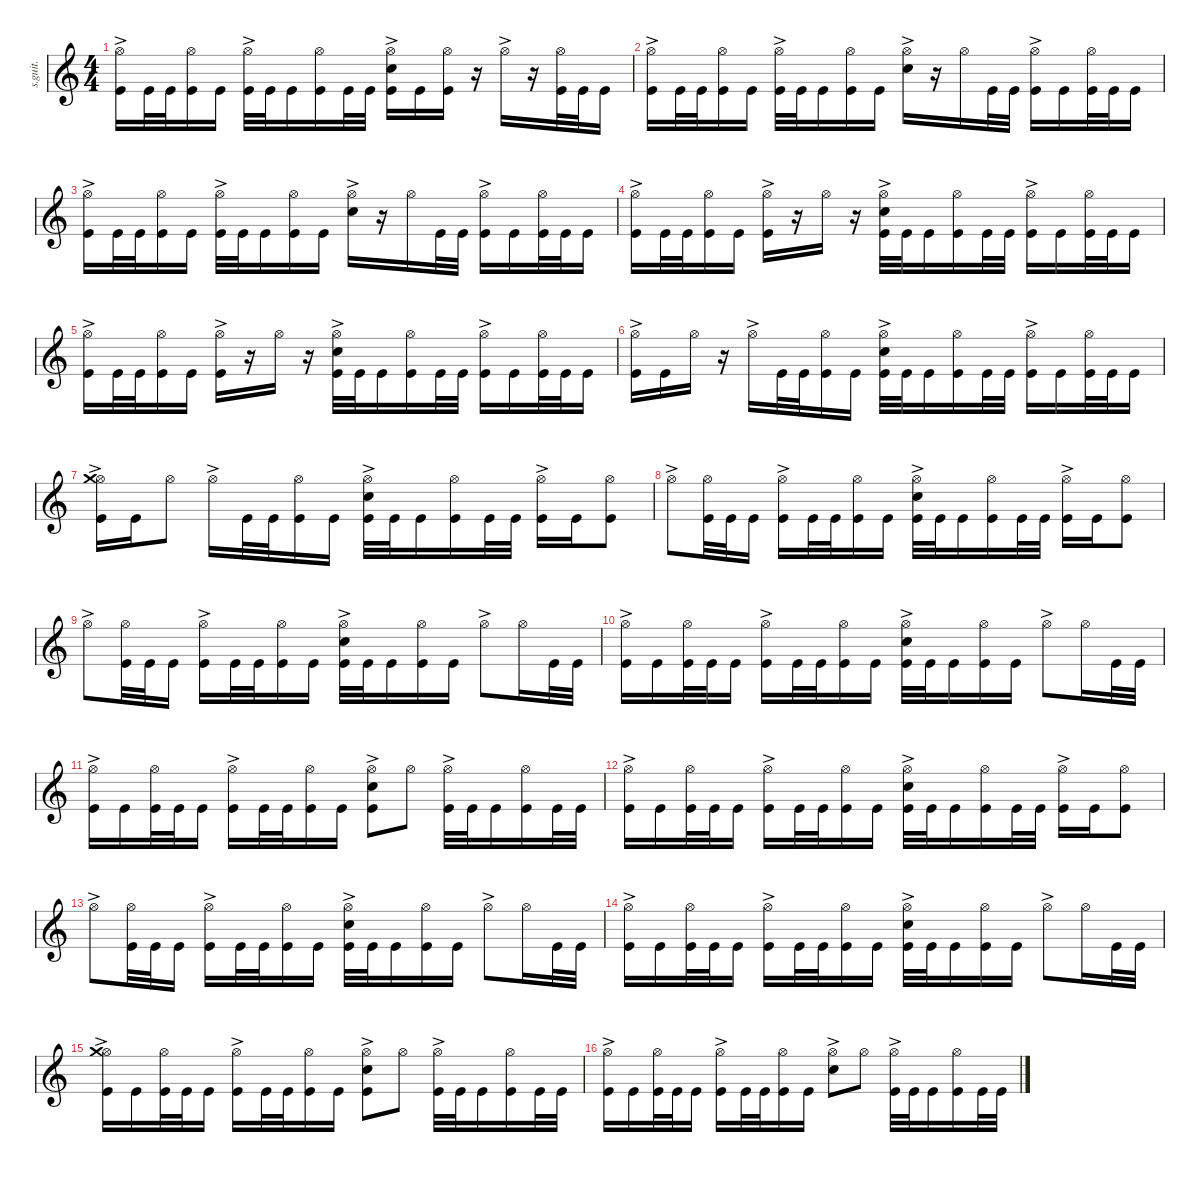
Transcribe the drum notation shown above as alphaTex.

\defaultSystemsLayout 4
\hideDynamics
\bracketExtendMode nobrackets
\track ("Tomas Haake (Drums)" "s.guit.") {instrument percussion}
\staff {score}
\articulation defaults
\ts (4 4)
\tempo (115 hide)
\clef g2
\ks c
("Hi-Hat (open)"{ac} "Kick (hit)").16{lyrics (0 "") lyrics (1 "") lyrics (2 "") lyrics (3 "") lyrics (4 "") dy f} "Kick (hit)".32{lyrics (0 "") lyrics (1 "") lyrics (2 "") lyrics (3 "") lyrics (4 "")} "Kick (hit)".32{lyrics (0 "") lyrics (1 "") lyrics (2 "") lyrics (3 "") lyrics (4 "") dy mf} ("Hi-Hat (open)" "Kick (hit)").16{lyrics (0 "") lyrics (1 "") lyrics (2 "") lyrics (3 "") lyrics (4 "") dy pp} "Kick (hit)".16{lyrics (0 "") lyrics (1 "") lyrics (2 "") lyrics (3 "") lyrics (4 "") dy f} ("Hi-Hat (open)"{ac} "Kick (hit)").32{lyrics (0 "") lyrics (1 "") lyrics (2 "") lyrics (3 "") lyrics (4 "")} "Kick (hit)".32{lyrics (0 "") lyrics (1 "") lyrics (2 "") lyrics (3 "") lyrics (4 "") dy mf} "Kick (hit)".16{lyrics (0 "") lyrics (1 "") lyrics (2 "") lyrics (3 "") lyrics (4 "") dy f} ("Hi-Hat (open)" "Kick (hit)").16{lyrics (0 "") lyrics (1 "") lyrics (2 "") lyrics (3 "") lyrics (4 "") dy pp} "Kick (hit)".32{lyrics (0 "") lyrics (1 "") lyrics (2 "") lyrics (3 "") lyrics (4 "") dy f} "Kick (hit)".32{lyrics (0 "") lyrics (1 "") lyrics (2 "") lyrics (3 "") lyrics (4 "") dy mf} ("Hi-Hat (open)"{ac} "Snare (hit) 2" "Kick (hit)").16{lyrics (0 "") lyrics (1 "") lyrics (2 "") lyrics (3 "") lyrics (4 "") dy f} "Kick (hit)".16{lyrics (0 "") lyrics (1 "") lyrics (2 "") lyrics (3 "") lyrics (4 "")} ("Hi-Hat (open)" "Kick (hit)").16{lyrics (0 "") lyrics (1 "") lyrics (2 "") lyrics (3 "") lyrics (4 "") dy pp} r.16 "Hi-Hat (open)"{ac}.16{lyrics (0 "") lyrics (1 "") lyrics (2 "") lyrics (3 "") lyrics (4 "") dy ppp} r.16 ("Hi-Hat (open)" "Kick (hit)").32{lyrics (0 "") lyrics (1 "") lyrics (2 "") lyrics (3 "") lyrics (4 "") dy pp} "Kick (hit)".32{lyrics (0 "") lyrics (1 "") lyrics (2 "") lyrics (3 "") lyrics (4 "") dy mf} "Kick (hit)".16{lyrics (0 "") lyrics (1 "") lyrics (2 "") lyrics (3 "") lyrics (4 "") dy f} |
("Hi-Hat (open)"{ac} "Kick (hit)").16{lyrics (0 "") lyrics (1 "") lyrics (2 "") lyrics (3 "") lyrics (4 "")} "Kick (hit)".32{lyrics (0 "") lyrics (1 "") lyrics (2 "") lyrics (3 "") lyrics (4 "")} "Kick (hit)".32{lyrics (0 "") lyrics (1 "") lyrics (2 "") lyrics (3 "") lyrics (4 "") dy mf} ("Hi-Hat (open)" "Kick (hit)").16{lyrics (0 "") lyrics (1 "") lyrics (2 "") lyrics (3 "") lyrics (4 "") dy pp} "Kick (hit)".16{lyrics (0 "") lyrics (1 "") lyrics (2 "") lyrics (3 "") lyrics (4 "") dy f} ("Hi-Hat (open)"{ac} "Kick (hit)").32{lyrics (0 "") lyrics (1 "") lyrics (2 "") lyrics (3 "") lyrics (4 "")} "Kick (hit)".32{lyrics (0 "") lyrics (1 "") lyrics (2 "") lyrics (3 "") lyrics (4 "") dy mf} "Kick (hit)".16{lyrics (0 "") lyrics (1 "") lyrics (2 "") lyrics (3 "") lyrics (4 "") dy f} ("Hi-Hat (open)" "Kick (hit)").16{lyrics (0 "") lyrics (1 "") lyrics (2 "") lyrics (3 "") lyrics (4 "") dy pp} "Kick (hit)".16{lyrics (0 "") lyrics (1 "") lyrics (2 "") lyrics (3 "") lyrics (4 "") dy f} ("Hi-Hat (open)"{ac} "Snare (hit) 2").16{lyrics (0 "") lyrics (1 "") lyrics (2 "") lyrics (3 "") lyrics (4 "")} r.16 "Hi-Hat (open)".16{lyrics (0 "") lyrics (1 "") lyrics (2 "") lyrics (3 "") lyrics (4 "") dy pp} "Kick (hit)".32{lyrics (0 "") lyrics (1 "") lyrics (2 "") lyrics (3 "") lyrics (4 "") dy f} "Kick (hit)".32{lyrics (0 "") lyrics (1 "") lyrics (2 "") lyrics (3 "") lyrics (4 "") dy mf} ("Hi-Hat (open)"{ac} "Kick (hit)").16{lyrics (0 "") lyrics (1 "") lyrics (2 "") lyrics (3 "") lyrics (4 "") dy f} "Kick (hit)".16{lyrics (0 "") lyrics (1 "") lyrics (2 "") lyrics (3 "") lyrics (4 "")} ("Hi-Hat (open)" "Kick (hit)").32{lyrics (0 "") lyrics (1 "") lyrics (2 "") lyrics (3 "") lyrics (4 "") dy pp} "Kick (hit)".32{lyrics (0 "") lyrics (1 "") lyrics (2 "") lyrics (3 "") lyrics (4 "") dy mf} "Kick (hit)".16{lyrics (0 "") lyrics (1 "") lyrics (2 "") lyrics (3 "") lyrics (4 "") dy f} |
("Hi-Hat (open)"{ac} "Kick (hit)").16{lyrics (0 "") lyrics (1 "") lyrics (2 "") lyrics (3 "") lyrics (4 "")} "Kick (hit)".32{lyrics (0 "") lyrics (1 "") lyrics (2 "") lyrics (3 "") lyrics (4 "")} "Kick (hit)".32{lyrics (0 "") lyrics (1 "") lyrics (2 "") lyrics (3 "") lyrics (4 "") dy mf} ("Hi-Hat (open)" "Kick (hit)").16{lyrics (0 "") lyrics (1 "") lyrics (2 "") lyrics (3 "") lyrics (4 "") dy pp} "Kick (hit)".16{lyrics (0 "") lyrics (1 "") lyrics (2 "") lyrics (3 "") lyrics (4 "") dy f} ("Hi-Hat (open)"{ac} "Kick (hit)").32{lyrics (0 "") lyrics (1 "") lyrics (2 "") lyrics (3 "") lyrics (4 "")} "Kick (hit)".32{lyrics (0 "") lyrics (1 "") lyrics (2 "") lyrics (3 "") lyrics (4 "") dy mf} "Kick (hit)".16{lyrics (0 "") lyrics (1 "") lyrics (2 "") lyrics (3 "") lyrics (4 "") dy f} ("Hi-Hat (open)" "Kick (hit)").16{lyrics (0 "") lyrics (1 "") lyrics (2 "") lyrics (3 "") lyrics (4 "") dy pp} "Kick (hit)".16{lyrics (0 "") lyrics (1 "") lyrics (2 "") lyrics (3 "") lyrics (4 "") dy f} ("Hi-Hat (open)"{ac} "Snare (hit) 2").16{lyrics (0 "") lyrics (1 "") lyrics (2 "") lyrics (3 "") lyrics (4 "")} r.16 "Hi-Hat (open)".16{lyrics (0 "") lyrics (1 "") lyrics (2 "") lyrics (3 "") lyrics (4 "") dy pp} "Kick (hit)".32{lyrics (0 "") lyrics (1 "") lyrics (2 "") lyrics (3 "") lyrics (4 "") dy f} "Kick (hit)".32{lyrics (0 "") lyrics (1 "") lyrics (2 "") lyrics (3 "") lyrics (4 "") dy mf} ("Hi-Hat (open)"{ac} "Kick (hit)").16{lyrics (0 "") lyrics (1 "") lyrics (2 "") lyrics (3 "") lyrics (4 "") dy f} "Kick (hit)".16{lyrics (0 "") lyrics (1 "") lyrics (2 "") lyrics (3 "") lyrics (4 "")} ("Hi-Hat (open)" "Kick (hit)").32{lyrics (0 "") lyrics (1 "") lyrics (2 "") lyrics (3 "") lyrics (4 "") dy pp} "Kick (hit)".32{lyrics (0 "") lyrics (1 "") lyrics (2 "") lyrics (3 "") lyrics (4 "") dy mf} "Kick (hit)".16{lyrics (0 "") lyrics (1 "") lyrics (2 "") lyrics (3 "") lyrics (4 "") dy f} |
("Hi-Hat (open)"{ac} "Kick (hit)").16{lyrics (0 "") lyrics (1 "") lyrics (2 "") lyrics (3 "") lyrics (4 "")} "Kick (hit)".32{lyrics (0 "") lyrics (1 "") lyrics (2 "") lyrics (3 "") lyrics (4 "")} "Kick (hit)".32{lyrics (0 "") lyrics (1 "") lyrics (2 "") lyrics (3 "") lyrics (4 "") dy mf} ("Hi-Hat (open)" "Kick (hit)").16{lyrics (0 "") lyrics (1 "") lyrics (2 "") lyrics (3 "") lyrics (4 "") dy pp} "Kick (hit)".16{lyrics (0 "") lyrics (1 "") lyrics (2 "") lyrics (3 "") lyrics (4 "") dy f} ("Hi-Hat (open)"{ac} "Kick (hit)").16{lyrics (0 "") lyrics (1 "") lyrics (2 "") lyrics (3 "") lyrics (4 "")} r.16 "Hi-Hat (open)".16{lyrics (0 "") lyrics (1 "") lyrics (2 "") lyrics (3 "") lyrics (4 "") dy pp} r.16 ("Hi-Hat (open)"{ac} "Snare (hit) 2" "Kick (hit)").32{lyrics (0 "") lyrics (1 "") lyrics (2 "") lyrics (3 "") lyrics (4 "") dy f} "Kick (hit)".32{lyrics (0 "") lyrics (1 "") lyrics (2 "") lyrics (3 "") lyrics (4 "") dy mf} "Kick (hit)".16{lyrics (0 "") lyrics (1 "") lyrics (2 "") lyrics (3 "") lyrics (4 "") dy f} ("Hi-Hat (open)" "Kick (hit)").16{lyrics (0 "") lyrics (1 "") lyrics (2 "") lyrics (3 "") lyrics (4 "") dy pp} "Kick (hit)".32{lyrics (0 "") lyrics (1 "") lyrics (2 "") lyrics (3 "") lyrics (4 "") dy f} "Kick (hit)".32{lyrics (0 "") lyrics (1 "") lyrics (2 "") lyrics (3 "") lyrics (4 "") dy mf} ("Hi-Hat (open)"{ac} "Kick (hit)").16{lyrics (0 "") lyrics (1 "") lyrics (2 "") lyrics (3 "") lyrics (4 "") dy f} "Kick (hit)".16{lyrics (0 "") lyrics (1 "") lyrics (2 "") lyrics (3 "") lyrics (4 "")} ("Hi-Hat (open)" "Kick (hit)").32{lyrics (0 "") lyrics (1 "") lyrics (2 "") lyrics (3 "") lyrics (4 "") dy pp} "Kick (hit)".32{lyrics (0 "") lyrics (1 "") lyrics (2 "") lyrics (3 "") lyrics (4 "") dy mf} "Kick (hit)".16{lyrics (0 "") lyrics (1 "") lyrics (2 "") lyrics (3 "") lyrics (4 "") dy f} |
("Hi-Hat (open)"{ac} "Kick (hit)").16{lyrics (0 "") lyrics (1 "") lyrics (2 "") lyrics (3 "") lyrics (4 "")} "Kick (hit)".32{lyrics (0 "") lyrics (1 "") lyrics (2 "") lyrics (3 "") lyrics (4 "")} "Kick (hit)".32{lyrics (0 "") lyrics (1 "") lyrics (2 "") lyrics (3 "") lyrics (4 "") dy mf} ("Hi-Hat (open)" "Kick (hit)").16{lyrics (0 "") lyrics (1 "") lyrics (2 "") lyrics (3 "") lyrics (4 "") dy pp} "Kick (hit)".16{lyrics (0 "") lyrics (1 "") lyrics (2 "") lyrics (3 "") lyrics (4 "") dy f} ("Hi-Hat (open)"{ac} "Kick (hit)").16{lyrics (0 "") lyrics (1 "") lyrics (2 "") lyrics (3 "") lyrics (4 "")} r.16 "Hi-Hat (open)".16{lyrics (0 "") lyrics (1 "") lyrics (2 "") lyrics (3 "") lyrics (4 "") dy pp} r.16 ("Hi-Hat (open)"{ac} "Snare (hit) 2" "Kick (hit)").32{lyrics (0 "") lyrics (1 "") lyrics (2 "") lyrics (3 "") lyrics (4 "") dy f} "Kick (hit)".32{lyrics (0 "") lyrics (1 "") lyrics (2 "") lyrics (3 "") lyrics (4 "") dy mf} "Kick (hit)".16{lyrics (0 "") lyrics (1 "") lyrics (2 "") lyrics (3 "") lyrics (4 "") dy f} ("Hi-Hat (open)" "Kick (hit)").16{lyrics (0 "") lyrics (1 "") lyrics (2 "") lyrics (3 "") lyrics (4 "") dy pp} "Kick (hit)".32{lyrics (0 "") lyrics (1 "") lyrics (2 "") lyrics (3 "") lyrics (4 "") dy f} "Kick (hit)".32{lyrics (0 "") lyrics (1 "") lyrics (2 "") lyrics (3 "") lyrics (4 "") dy mf} ("Hi-Hat (open)"{ac} "Kick (hit)").16{lyrics (0 "") lyrics (1 "") lyrics (2 "") lyrics (3 "") lyrics (4 "") dy f} "Kick (hit)".16{lyrics (0 "") lyrics (1 "") lyrics (2 "") lyrics (3 "") lyrics (4 "")} ("Hi-Hat (open)" "Kick (hit)").32{lyrics (0 "") lyrics (1 "") lyrics (2 "") lyrics (3 "") lyrics (4 "") dy pp} "Kick (hit)".32{lyrics (0 "") lyrics (1 "") lyrics (2 "") lyrics (3 "") lyrics (4 "") dy mf} "Kick (hit)".16{lyrics (0 "") lyrics (1 "") lyrics (2 "") lyrics (3 "") lyrics (4 "") dy f} |
("Hi-Hat (open)"{ac} "Kick (hit)").16{lyrics (0 "") lyrics (1 "") lyrics (2 "") lyrics (3 "") lyrics (4 "")} "Kick (hit)".16{lyrics (0 "") lyrics (1 "") lyrics (2 "") lyrics (3 "") lyrics (4 "")} "Hi-Hat (open)".16{lyrics (0 "") lyrics (1 "") lyrics (2 "") lyrics (3 "") lyrics (4 "") dy pp} r.16 "Hi-Hat (open)"{ac}.16{lyrics (0 "") lyrics (1 "") lyrics (2 "") lyrics (3 "") lyrics (4 "") dy ppp} "Kick (hit)".32{lyrics (0 "") lyrics (1 "") lyrics (2 "") lyrics (3 "") lyrics (4 "") dy f} "Kick (hit)".32{lyrics (0 "") lyrics (1 "") lyrics (2 "") lyrics (3 "") lyrics (4 "") dy mf} ("Hi-Hat (open)" "Kick (hit)").16{lyrics (0 "") lyrics (1 "") lyrics (2 "") lyrics (3 "") lyrics (4 "") dy pp} "Kick (hit)".16{lyrics (0 "") lyrics (1 "") lyrics (2 "") lyrics (3 "") lyrics (4 "") dy f} ("Hi-Hat (open)"{ac} "Snare (hit) 2" "Kick (hit)").32{lyrics (0 "") lyrics (1 "") lyrics (2 "") lyrics (3 "") lyrics (4 "")} "Kick (hit)".32{lyrics (0 "") lyrics (1 "") lyrics (2 "") lyrics (3 "") lyrics (4 "")} "Kick (hit)".16{lyrics (0 "") lyrics (1 "") lyrics (2 "") lyrics (3 "") lyrics (4 "")} ("Hi-Hat (open)" "Kick (hit)").16{lyrics (0 "") lyrics (1 "") lyrics (2 "") lyrics (3 "") lyrics (4 "") dy pp} "Kick (hit)".32{lyrics (0 "") lyrics (1 "") lyrics (2 "") lyrics (3 "") lyrics (4 "") dy f} "Kick (hit)".32{lyrics (0 "") lyrics (1 "") lyrics (2 "") lyrics (3 "") lyrics (4 "") dy mf} ("Hi-Hat (open)"{ac} "Kick (hit)").16{lyrics (0 "") lyrics (1 "") lyrics (2 "") lyrics (3 "") lyrics (4 "") dy f} "Kick (hit)".16{lyrics (0 "") lyrics (1 "") lyrics (2 "") lyrics (3 "") lyrics (4 "")} ("Hi-Hat (open)" "Kick (hit)").32{lyrics (0 "") lyrics (1 "") lyrics (2 "") lyrics (3 "") lyrics (4 "") dy pp} "Kick (hit)".32{lyrics (0 "") lyrics (1 "") lyrics (2 "") lyrics (3 "") lyrics (4 "") dy mf} "Kick (hit)".16{lyrics (0 "") lyrics (1 "") lyrics (2 "") lyrics (3 "") lyrics (4 "") dy f} |
("Hi-Hat (open)"{ac} "Crash medium (hit)" "Kick (hit)").16{lyrics (0 "") lyrics (1 "") lyrics (2 "") lyrics (3 "") lyrics (4 "") dy mf} "Kick (hit)".16{lyrics (0 "") lyrics (1 "") lyrics (2 "") lyrics (3 "") lyrics (4 "") dy f} "Hi-Hat (open)".8{lyrics (0 "") lyrics (1 "") lyrics (2 "") lyrics (3 "") lyrics (4 "") dy p} "Hi-Hat (open)"{ac}.16{lyrics (0 "") lyrics (1 "") lyrics (2 "") lyrics (3 "") lyrics (4 "") dy ppp} "Kick (hit)".32{lyrics (0 "") lyrics (1 "") lyrics (2 "") lyrics (3 "") lyrics (4 "") dy f} "Kick (hit)".32{lyrics (0 "") lyrics (1 "") lyrics (2 "") lyrics (3 "") lyrics (4 "") dy mf} ("Hi-Hat (open)" "Kick (hit)").16{lyrics (0 "") lyrics (1 "") lyrics (2 "") lyrics (3 "") lyrics (4 "") dy p} "Kick (hit)".16{lyrics (0 "") lyrics (1 "") lyrics (2 "") lyrics (3 "") lyrics (4 "") dy f} ("Hi-Hat (open)"{ac} "Snare (hit) 2" "Kick (hit)").32{lyrics (0 "") lyrics (1 "") lyrics (2 "") lyrics (3 "") lyrics (4 "")} "Kick (hit)".32{lyrics (0 "") lyrics (1 "") lyrics (2 "") lyrics (3 "") lyrics (4 "")} "Kick (hit)".16{lyrics (0 "") lyrics (1 "") lyrics (2 "") lyrics (3 "") lyrics (4 "")} ("Hi-Hat (open)" "Kick (hit)").16{lyrics (0 "") lyrics (1 "") lyrics (2 "") lyrics (3 "") lyrics (4 "") dy p} "Kick (hit)".32{lyrics (0 "") lyrics (1 "") lyrics (2 "") lyrics (3 "") lyrics (4 "") dy f} "Kick (hit)".32{lyrics (0 "") lyrics (1 "") lyrics (2 "") lyrics (3 "") lyrics (4 "") dy mf} ("Hi-Hat (open)"{ac} "Kick (hit)").16{lyrics (0 "") lyrics (1 "") lyrics (2 "") lyrics (3 "") lyrics (4 "") dy f} "Kick (hit)".16{lyrics (0 "") lyrics (1 "") lyrics (2 "") lyrics (3 "") lyrics (4 "")} ("Hi-Hat (open)" "Kick (hit)").8{lyrics (0 "") lyrics (1 "") lyrics (2 "") lyrics (3 "") lyrics (4 "") dy p} |
"Hi-Hat (open)"{ac}.8{lyrics (0 "") lyrics (1 "") lyrics (2 "") lyrics (3 "") lyrics (4 "") dy ppp} ("Hi-Hat (open)" "Kick (hit)").32{lyrics (0 "") lyrics (1 "") lyrics (2 "") lyrics (3 "") lyrics (4 "") dy p} "Kick (hit)".32{lyrics (0 "") lyrics (1 "") lyrics (2 "") lyrics (3 "") lyrics (4 "") dy mf} "Kick (hit)".16{lyrics (0 "") lyrics (1 "") lyrics (2 "") lyrics (3 "") lyrics (4 "") dy f} ("Hi-Hat (open)"{ac} "Kick (hit)").16{lyrics (0 "") lyrics (1 "") lyrics (2 "") lyrics (3 "") lyrics (4 "")} "Kick (hit)".32{lyrics (0 "") lyrics (1 "") lyrics (2 "") lyrics (3 "") lyrics (4 "")} "Kick (hit)".32{lyrics (0 "") lyrics (1 "") lyrics (2 "") lyrics (3 "") lyrics (4 "") dy mf} ("Hi-Hat (open)" "Kick (hit)").16{lyrics (0 "") lyrics (1 "") lyrics (2 "") lyrics (3 "") lyrics (4 "") dy p} "Kick (hit)".16{lyrics (0 "") lyrics (1 "") lyrics (2 "") lyrics (3 "") lyrics (4 "") dy f} ("Hi-Hat (open)"{ac} "Snare (hit) 2" "Kick (hit)").32{lyrics (0 "") lyrics (1 "") lyrics (2 "") lyrics (3 "") lyrics (4 "")} "Kick (hit)".32{lyrics (0 "") lyrics (1 "") lyrics (2 "") lyrics (3 "") lyrics (4 "")} "Kick (hit)".16{lyrics (0 "") lyrics (1 "") lyrics (2 "") lyrics (3 "") lyrics (4 "")} ("Hi-Hat (open)" "Kick (hit)").16{lyrics (0 "") lyrics (1 "") lyrics (2 "") lyrics (3 "") lyrics (4 "") dy p} "Kick (hit)".32{lyrics (0 "") lyrics (1 "") lyrics (2 "") lyrics (3 "") lyrics (4 "") dy f} "Kick (hit)".32{lyrics (0 "") lyrics (1 "") lyrics (2 "") lyrics (3 "") lyrics (4 "") dy mf} ("Hi-Hat (open)"{ac} "Kick (hit)").16{lyrics (0 "") lyrics (1 "") lyrics (2 "") lyrics (3 "") lyrics (4 "") dy f} "Kick (hit)".16{lyrics (0 "") lyrics (1 "") lyrics (2 "") lyrics (3 "") lyrics (4 "")} ("Hi-Hat (open)" "Kick (hit)").8{lyrics (0 "") lyrics (1 "") lyrics (2 "") lyrics (3 "") lyrics (4 "") dy p} |
"Hi-Hat (open)"{ac}.8{lyrics (0 "") lyrics (1 "") lyrics (2 "") lyrics (3 "") lyrics (4 "") dy ppp} ("Hi-Hat (open)" "Kick (hit)").32{lyrics (0 "") lyrics (1 "") lyrics (2 "") lyrics (3 "") lyrics (4 "") dy p} "Kick (hit)".32{lyrics (0 "") lyrics (1 "") lyrics (2 "") lyrics (3 "") lyrics (4 "") dy mf} "Kick (hit)".16{lyrics (0 "") lyrics (1 "") lyrics (2 "") lyrics (3 "") lyrics (4 "") dy f} ("Hi-Hat (open)"{ac} "Kick (hit)").16{lyrics (0 "") lyrics (1 "") lyrics (2 "") lyrics (3 "") lyrics (4 "")} "Kick (hit)".32{lyrics (0 "") lyrics (1 "") lyrics (2 "") lyrics (3 "") lyrics (4 "")} "Kick (hit)".32{lyrics (0 "") lyrics (1 "") lyrics (2 "") lyrics (3 "") lyrics (4 "") dy mf} ("Hi-Hat (open)" "Kick (hit)").16{lyrics (0 "") lyrics (1 "") lyrics (2 "") lyrics (3 "") lyrics (4 "") dy p} "Kick (hit)".16{lyrics (0 "") lyrics (1 "") lyrics (2 "") lyrics (3 "") lyrics (4 "") dy f} ("Hi-Hat (open)"{ac} "Snare (hit) 2" "Kick (hit)").32{lyrics (0 "") lyrics (1 "") lyrics (2 "") lyrics (3 "") lyrics (4 "")} "Kick (hit)".32{lyrics (0 "") lyrics (1 "") lyrics (2 "") lyrics (3 "") lyrics (4 "")} "Kick (hit)".16{lyrics (0 "") lyrics (1 "") lyrics (2 "") lyrics (3 "") lyrics (4 "")} ("Hi-Hat (open)" "Kick (hit)").16{lyrics (0 "") lyrics (1 "") lyrics (2 "") lyrics (3 "") lyrics (4 "") dy p} "Kick (hit)".16{lyrics (0 "") lyrics (1 "") lyrics (2 "") lyrics (3 "") lyrics (4 "") dy f} "Hi-Hat (open)"{ac}.8{lyrics (0 "") lyrics (1 "") lyrics (2 "") lyrics (3 "") lyrics (4 "") dy ppp} "Hi-Hat (open)".16{lyrics (0 "") lyrics (1 "") lyrics (2 "") lyrics (3 "") lyrics (4 "") dy p} "Kick (hit)".32{lyrics (0 "") lyrics (1 "") lyrics (2 "") lyrics (3 "") lyrics (4 "") dy f} "Kick (hit)".32{lyrics (0 "") lyrics (1 "") lyrics (2 "") lyrics (3 "") lyrics (4 "") dy mf} |
("Hi-Hat (open)"{ac} "Kick (hit)").16{lyrics (0 "") lyrics (1 "") lyrics (2 "") lyrics (3 "") lyrics (4 "") dy f} "Kick (hit)".16{lyrics (0 "") lyrics (1 "") lyrics (2 "") lyrics (3 "") lyrics (4 "")} ("Hi-Hat (open)" "Kick (hit)").32{lyrics (0 "") lyrics (1 "") lyrics (2 "") lyrics (3 "") lyrics (4 "") dy p} "Kick (hit)".32{lyrics (0 "") lyrics (1 "") lyrics (2 "") lyrics (3 "") lyrics (4 "") dy mf} "Kick (hit)".16{lyrics (0 "") lyrics (1 "") lyrics (2 "") lyrics (3 "") lyrics (4 "") dy f} ("Hi-Hat (open)"{ac} "Kick (hit)").16{lyrics (0 "") lyrics (1 "") lyrics (2 "") lyrics (3 "") lyrics (4 "")} "Kick (hit)".32{lyrics (0 "") lyrics (1 "") lyrics (2 "") lyrics (3 "") lyrics (4 "")} "Kick (hit)".32{lyrics (0 "") lyrics (1 "") lyrics (2 "") lyrics (3 "") lyrics (4 "") dy mf} ("Hi-Hat (open)" "Kick (hit)").16{lyrics (0 "") lyrics (1 "") lyrics (2 "") lyrics (3 "") lyrics (4 "") dy p} "Kick (hit)".16{lyrics (0 "") lyrics (1 "") lyrics (2 "") lyrics (3 "") lyrics (4 "") dy f} ("Hi-Hat (open)"{ac} "Snare (hit) 2" "Kick (hit)").32{lyrics (0 "") lyrics (1 "") lyrics (2 "") lyrics (3 "") lyrics (4 "")} "Kick (hit)".32{lyrics (0 "") lyrics (1 "") lyrics (2 "") lyrics (3 "") lyrics (4 "")} "Kick (hit)".16{lyrics (0 "") lyrics (1 "") lyrics (2 "") lyrics (3 "") lyrics (4 "")} ("Hi-Hat (open)" "Kick (hit)").16{lyrics (0 "") lyrics (1 "") lyrics (2 "") lyrics (3 "") lyrics (4 "") dy p} "Kick (hit)".16{lyrics (0 "") lyrics (1 "") lyrics (2 "") lyrics (3 "") lyrics (4 "") dy f} "Hi-Hat (open)"{ac}.8{lyrics (0 "") lyrics (1 "") lyrics (2 "") lyrics (3 "") lyrics (4 "") dy ppp} "Hi-Hat (open)".16{lyrics (0 "") lyrics (1 "") lyrics (2 "") lyrics (3 "") lyrics (4 "") dy p} "Kick (hit)".32{lyrics (0 "") lyrics (1 "") lyrics (2 "") lyrics (3 "") lyrics (4 "") dy f} "Kick (hit)".32{lyrics (0 "") lyrics (1 "") lyrics (2 "") lyrics (3 "") lyrics (4 "") dy mf} |
("Hi-Hat (open)"{ac} "Kick (hit)").16{lyrics (0 "") lyrics (1 "") lyrics (2 "") lyrics (3 "") lyrics (4 "") dy f} "Kick (hit)".16{lyrics (0 "") lyrics (1 "") lyrics (2 "") lyrics (3 "") lyrics (4 "")} ("Hi-Hat (open)" "Kick (hit)").32{lyrics (0 "") lyrics (1 "") lyrics (2 "") lyrics (3 "") lyrics (4 "") dy p} "Kick (hit)".32{lyrics (0 "") lyrics (1 "") lyrics (2 "") lyrics (3 "") lyrics (4 "") dy mf} "Kick (hit)".16{lyrics (0 "") lyrics (1 "") lyrics (2 "") lyrics (3 "") lyrics (4 "") dy f} ("Hi-Hat (open)"{ac} "Kick (hit)").16{lyrics (0 "") lyrics (1 "") lyrics (2 "") lyrics (3 "") lyrics (4 "")} "Kick (hit)".32{lyrics (0 "") lyrics (1 "") lyrics (2 "") lyrics (3 "") lyrics (4 "")} "Kick (hit)".32{lyrics (0 "") lyrics (1 "") lyrics (2 "") lyrics (3 "") lyrics (4 "") dy mf} ("Hi-Hat (open)" "Kick (hit)").16{lyrics (0 "") lyrics (1 "") lyrics (2 "") lyrics (3 "") lyrics (4 "") dy p} "Kick (hit)".16{lyrics (0 "") lyrics (1 "") lyrics (2 "") lyrics (3 "") lyrics (4 "") dy f} ("Hi-Hat (open)"{ac} "Snare (hit) 2" "Kick (hit)").8{lyrics (0 "") lyrics (1 "") lyrics (2 "") lyrics (3 "") lyrics (4 "")} "Hi-Hat (open)".8{lyrics (0 "") lyrics (1 "") lyrics (2 "") lyrics (3 "") lyrics (4 "") dy p} ("Hi-Hat (open)"{ac} "Kick (hit)").32{lyrics (0 "") lyrics (1 "") lyrics (2 "") lyrics (3 "") lyrics (4 "") dy f} "Kick (hit)".32{lyrics (0 "") lyrics (1 "") lyrics (2 "") lyrics (3 "") lyrics (4 "")} "Kick (hit)".16{lyrics (0 "") lyrics (1 "") lyrics (2 "") lyrics (3 "") lyrics (4 "")} ("Hi-Hat (open)" "Kick (hit)").16{lyrics (0 "") lyrics (1 "") lyrics (2 "") lyrics (3 "") lyrics (4 "") dy p} "Kick (hit)".32{lyrics (0 "") lyrics (1 "") lyrics (2 "") lyrics (3 "") lyrics (4 "") dy f} "Kick (hit)".32{lyrics (0 "") lyrics (1 "") lyrics (2 "") lyrics (3 "") lyrics (4 "") dy mf} |
("Hi-Hat (open)"{ac} "Kick (hit)").16{lyrics (0 "") lyrics (1 "") lyrics (2 "") lyrics (3 "") lyrics (4 "") dy f} "Kick (hit)".16{lyrics (0 "") lyrics (1 "") lyrics (2 "") lyrics (3 "") lyrics (4 "")} ("Hi-Hat (open)" "Kick (hit)").32{lyrics (0 "") lyrics (1 "") lyrics (2 "") lyrics (3 "") lyrics (4 "") dy p} "Kick (hit)".32{lyrics (0 "") lyrics (1 "") lyrics (2 "") lyrics (3 "") lyrics (4 "") dy mf} "Kick (hit)".16{lyrics (0 "") lyrics (1 "") lyrics (2 "") lyrics (3 "") lyrics (4 "") dy f} ("Hi-Hat (open)"{ac} "Kick (hit)").16{lyrics (0 "") lyrics (1 "") lyrics (2 "") lyrics (3 "") lyrics (4 "")} "Kick (hit)".32{lyrics (0 "") lyrics (1 "") lyrics (2 "") lyrics (3 "") lyrics (4 "")} "Kick (hit)".32{lyrics (0 "") lyrics (1 "") lyrics (2 "") lyrics (3 "") lyrics (4 "") dy mf} ("Hi-Hat (open)" "Kick (hit)").16{lyrics (0 "") lyrics (1 "") lyrics (2 "") lyrics (3 "") lyrics (4 "") dy p} "Kick (hit)".16{lyrics (0 "") lyrics (1 "") lyrics (2 "") lyrics (3 "") lyrics (4 "") dy f} ("Hi-Hat (open)"{ac} "Snare (hit) 2" "Kick (hit)").32{lyrics (0 "") lyrics (1 "") lyrics (2 "") lyrics (3 "") lyrics (4 "")} "Kick (hit)".32{lyrics (0 "") lyrics (1 "") lyrics (2 "") lyrics (3 "") lyrics (4 "") dy mf} "Kick (hit)".16{lyrics (0 "") lyrics (1 "") lyrics (2 "") lyrics (3 "") lyrics (4 "") dy f} ("Hi-Hat (open)" "Kick (hit)").16{lyrics (0 "") lyrics (1 "") lyrics (2 "") lyrics (3 "") lyrics (4 "") dy p} "Kick (hit)".32{lyrics (0 "") lyrics (1 "") lyrics (2 "") lyrics (3 "") lyrics (4 "") dy f} "Kick (hit)".32{lyrics (0 "") lyrics (1 "") lyrics (2 "") lyrics (3 "") lyrics (4 "") dy mf} ("Hi-Hat (open)"{ac} "Kick (hit)").16{lyrics (0 "") lyrics (1 "") lyrics (2 "") lyrics (3 "") lyrics (4 "") dy f} "Kick (hit)".16{lyrics (0 "") lyrics (1 "") lyrics (2 "") lyrics (3 "") lyrics (4 "")} ("Hi-Hat (open)" "Kick (hit)").8{lyrics (0 "") lyrics (1 "") lyrics (2 "") lyrics (3 "") lyrics (4 "") dy p} |
"Hi-Hat (open)"{ac}.8{lyrics (0 "") lyrics (1 "") lyrics (2 "") lyrics (3 "") lyrics (4 "") dy ppp} ("Hi-Hat (open)" "Kick (hit)").32{lyrics (0 "") lyrics (1 "") lyrics (2 "") lyrics (3 "") lyrics (4 "") dy p} "Kick (hit)".32{lyrics (0 "") lyrics (1 "") lyrics (2 "") lyrics (3 "") lyrics (4 "") dy mf} "Kick (hit)".16{lyrics (0 "") lyrics (1 "") lyrics (2 "") lyrics (3 "") lyrics (4 "") dy f} ("Hi-Hat (open)"{ac} "Kick (hit)").16{lyrics (0 "") lyrics (1 "") lyrics (2 "") lyrics (3 "") lyrics (4 "")} "Kick (hit)".32{lyrics (0 "") lyrics (1 "") lyrics (2 "") lyrics (3 "") lyrics (4 "")} "Kick (hit)".32{lyrics (0 "") lyrics (1 "") lyrics (2 "") lyrics (3 "") lyrics (4 "") dy mf} ("Hi-Hat (open)" "Kick (hit)").16{lyrics (0 "") lyrics (1 "") lyrics (2 "") lyrics (3 "") lyrics (4 "") dy p} "Kick (hit)".16{lyrics (0 "") lyrics (1 "") lyrics (2 "") lyrics (3 "") lyrics (4 "") dy f} ("Hi-Hat (open)"{ac} "Snare (hit) 2" "Kick (hit)").32{lyrics (0 "") lyrics (1 "") lyrics (2 "") lyrics (3 "") lyrics (4 "")} "Kick (hit)".32{lyrics (0 "") lyrics (1 "") lyrics (2 "") lyrics (3 "") lyrics (4 "")} "Kick (hit)".16{lyrics (0 "") lyrics (1 "") lyrics (2 "") lyrics (3 "") lyrics (4 "")} ("Hi-Hat (open)" "Kick (hit)").16{lyrics (0 "") lyrics (1 "") lyrics (2 "") lyrics (3 "") lyrics (4 "") dy p} "Kick (hit)".16{lyrics (0 "") lyrics (1 "") lyrics (2 "") lyrics (3 "") lyrics (4 "") dy f} "Hi-Hat (open)"{ac}.8{lyrics (0 "") lyrics (1 "") lyrics (2 "") lyrics (3 "") lyrics (4 "") dy ppp} "Hi-Hat (open)".16{lyrics (0 "") lyrics (1 "") lyrics (2 "") lyrics (3 "") lyrics (4 "") dy p} "Kick (hit)".32{lyrics (0 "") lyrics (1 "") lyrics (2 "") lyrics (3 "") lyrics (4 "") dy f} "Kick (hit)".32{lyrics (0 "") lyrics (1 "") lyrics (2 "") lyrics (3 "") lyrics (4 "") dy mf} |
("Hi-Hat (open)"{ac} "Kick (hit)").16{lyrics (0 "") lyrics (1 "") lyrics (2 "") lyrics (3 "") lyrics (4 "") dy f} "Kick (hit)".16{lyrics (0 "") lyrics (1 "") lyrics (2 "") lyrics (3 "") lyrics (4 "")} ("Hi-Hat (open)" "Kick (hit)").32{lyrics (0 "") lyrics (1 "") lyrics (2 "") lyrics (3 "") lyrics (4 "") dy p} "Kick (hit)".32{lyrics (0 "") lyrics (1 "") lyrics (2 "") lyrics (3 "") lyrics (4 "") dy mf} "Kick (hit)".16{lyrics (0 "") lyrics (1 "") lyrics (2 "") lyrics (3 "") lyrics (4 "") dy f} ("Hi-Hat (open)"{ac} "Kick (hit)").16{lyrics (0 "") lyrics (1 "") lyrics (2 "") lyrics (3 "") lyrics (4 "")} "Kick (hit)".32{lyrics (0 "") lyrics (1 "") lyrics (2 "") lyrics (3 "") lyrics (4 "")} "Kick (hit)".32{lyrics (0 "") lyrics (1 "") lyrics (2 "") lyrics (3 "") lyrics (4 "") dy mf} ("Hi-Hat (open)" "Kick (hit)").16{lyrics (0 "") lyrics (1 "") lyrics (2 "") lyrics (3 "") lyrics (4 "") dy p} "Kick (hit)".16{lyrics (0 "") lyrics (1 "") lyrics (2 "") lyrics (3 "") lyrics (4 "") dy f} ("Hi-Hat (open)"{ac} "Snare (hit) 2" "Kick (hit)").32{lyrics (0 "") lyrics (1 "") lyrics (2 "") lyrics (3 "") lyrics (4 "")} "Kick (hit)".32{lyrics (0 "") lyrics (1 "") lyrics (2 "") lyrics (3 "") lyrics (4 "")} "Kick (hit)".16{lyrics (0 "") lyrics (1 "") lyrics (2 "") lyrics (3 "") lyrics (4 "")} ("Hi-Hat (open)" "Kick (hit)").16{lyrics (0 "") lyrics (1 "") lyrics (2 "") lyrics (3 "") lyrics (4 "") dy p} "Kick (hit)".16{lyrics (0 "") lyrics (1 "") lyrics (2 "") lyrics (3 "") lyrics (4 "") dy f} "Hi-Hat (open)"{ac}.8{lyrics (0 "") lyrics (1 "") lyrics (2 "") lyrics (3 "") lyrics (4 "") dy ppp} "Hi-Hat (open)".16{lyrics (0 "") lyrics (1 "") lyrics (2 "") lyrics (3 "") lyrics (4 "") dy p} "Kick (hit)".32{lyrics (0 "") lyrics (1 "") lyrics (2 "") lyrics (3 "") lyrics (4 "") dy f} "Kick (hit)".32{lyrics (0 "") lyrics (1 "") lyrics (2 "") lyrics (3 "") lyrics (4 "") dy mf} |
("Hi-Hat (open)"{ac} "Crash medium (hit)" "Kick (hit)").16{lyrics (0 "") lyrics (1 "") lyrics (2 "") lyrics (3 "") lyrics (4 "")} "Kick (hit)".16{lyrics (0 "") lyrics (1 "") lyrics (2 "") lyrics (3 "") lyrics (4 "") dy f} ("Hi-Hat (open)" "Kick (hit)").32{lyrics (0 "") lyrics (1 "") lyrics (2 "") lyrics (3 "") lyrics (4 "") dy p} "Kick (hit)".32{lyrics (0 "") lyrics (1 "") lyrics (2 "") lyrics (3 "") lyrics (4 "") dy mf} "Kick (hit)".16{lyrics (0 "") lyrics (1 "") lyrics (2 "") lyrics (3 "") lyrics (4 "") dy f} ("Hi-Hat (open)"{ac} "Kick (hit)").16{lyrics (0 "") lyrics (1 "") lyrics (2 "") lyrics (3 "") lyrics (4 "")} "Kick (hit)".32{lyrics (0 "") lyrics (1 "") lyrics (2 "") lyrics (3 "") lyrics (4 "")} "Kick (hit)".32{lyrics (0 "") lyrics (1 "") lyrics (2 "") lyrics (3 "") lyrics (4 "") dy mf} ("Hi-Hat (open)" "Kick (hit)").16{lyrics (0 "") lyrics (1 "") lyrics (2 "") lyrics (3 "") lyrics (4 "") dy p} "Kick (hit)".16{lyrics (0 "") lyrics (1 "") lyrics (2 "") lyrics (3 "") lyrics (4 "") dy f} ("Hi-Hat (open)"{ac} "Snare (hit) 2" "Kick (hit)").8{lyrics (0 "") lyrics (1 "") lyrics (2 "") lyrics (3 "") lyrics (4 "")} "Hi-Hat (open)".8{lyrics (0 "") lyrics (1 "") lyrics (2 "") lyrics (3 "") lyrics (4 "") dy p} ("Hi-Hat (open)"{ac} "Kick (hit)").32{lyrics (0 "") lyrics (1 "") lyrics (2 "") lyrics (3 "") lyrics (4 "") dy f} "Kick (hit)".32{lyrics (0 "") lyrics (1 "") lyrics (2 "") lyrics (3 "") lyrics (4 "")} "Kick (hit)".16{lyrics (0 "") lyrics (1 "") lyrics (2 "") lyrics (3 "") lyrics (4 "")} ("Hi-Hat (open)" "Kick (hit)").16{lyrics (0 "") lyrics (1 "") lyrics (2 "") lyrics (3 "") lyrics (4 "") dy p} "Kick (hit)".32{lyrics (0 "") lyrics (1 "") lyrics (2 "") lyrics (3 "") lyrics (4 "") dy f} "Kick (hit)".32{lyrics (0 "") lyrics (1 "") lyrics (2 "") lyrics (3 "") lyrics (4 "") dy mf} |
("Hi-Hat (open)"{ac} "Kick (hit)").16{lyrics (0 "") lyrics (1 "") lyrics (2 "") lyrics (3 "") lyrics (4 "") dy f} "Kick (hit)".16{lyrics (0 "") lyrics (1 "") lyrics (2 "") lyrics (3 "") lyrics (4 "")} ("Hi-Hat (open)" "Kick (hit)").32{lyrics (0 "") lyrics (1 "") lyrics (2 "") lyrics (3 "") lyrics (4 "") dy p} "Kick (hit)".32{lyrics (0 "") lyrics (1 "") lyrics (2 "") lyrics (3 "") lyrics (4 "") dy mf} "Kick (hit)".16{lyrics (0 "") lyrics (1 "") lyrics (2 "") lyrics (3 "") lyrics (4 "") dy f} ("Hi-Hat (open)"{ac} "Kick (hit)").16{lyrics (0 "") lyrics (1 "") lyrics (2 "") lyrics (3 "") lyrics (4 "")} "Kick (hit)".32{lyrics (0 "") lyrics (1 "") lyrics (2 "") lyrics (3 "") lyrics (4 "")} "Kick (hit)".32{lyrics (0 "") lyrics (1 "") lyrics (2 "") lyrics (3 "") lyrics (4 "") dy mf} ("Hi-Hat (open)" "Kick (hit)").16{lyrics (0 "") lyrics (1 "") lyrics (2 "") lyrics (3 "") lyrics (4 "") dy p} "Kick (hit)".16{lyrics (0 "") lyrics (1 "") lyrics (2 "") lyrics (3 "") lyrics (4 "") dy f} ("Hi-Hat (open)"{ac} "Snare (hit) 2").8{lyrics (0 "") lyrics (1 "") lyrics (2 "") lyrics (3 "") lyrics (4 "")} "Hi-Hat (open)".8{lyrics (0 "") lyrics (1 "") lyrics (2 "") lyrics (3 "") lyrics (4 "") dy p} ("Hi-Hat (open)"{ac} "Kick (hit)").32{lyrics (0 "") lyrics (1 "") lyrics (2 "") lyrics (3 "") lyrics (4 "") dy f} "Kick (hit)".32{lyrics (0 "") lyrics (1 "") lyrics (2 "") lyrics (3 "") lyrics (4 "") dy mf} "Kick (hit)".16{lyrics (0 "") lyrics (1 "") lyrics (2 "") lyrics (3 "") lyrics (4 "") dy f} ("Hi-Hat (open)" "Kick (hit)").16{lyrics (0 "") lyrics (1 "") lyrics (2 "") lyrics (3 "") lyrics (4 "") dy p} "Kick (hit)".32{lyrics (0 "") lyrics (1 "") lyrics (2 "") lyrics (3 "") lyrics (4 "") dy f} "Kick (hit)".32{lyrics (0 "") lyrics (1 "") lyrics (2 "") lyrics (3 "") lyrics (4 "") dy mf}
